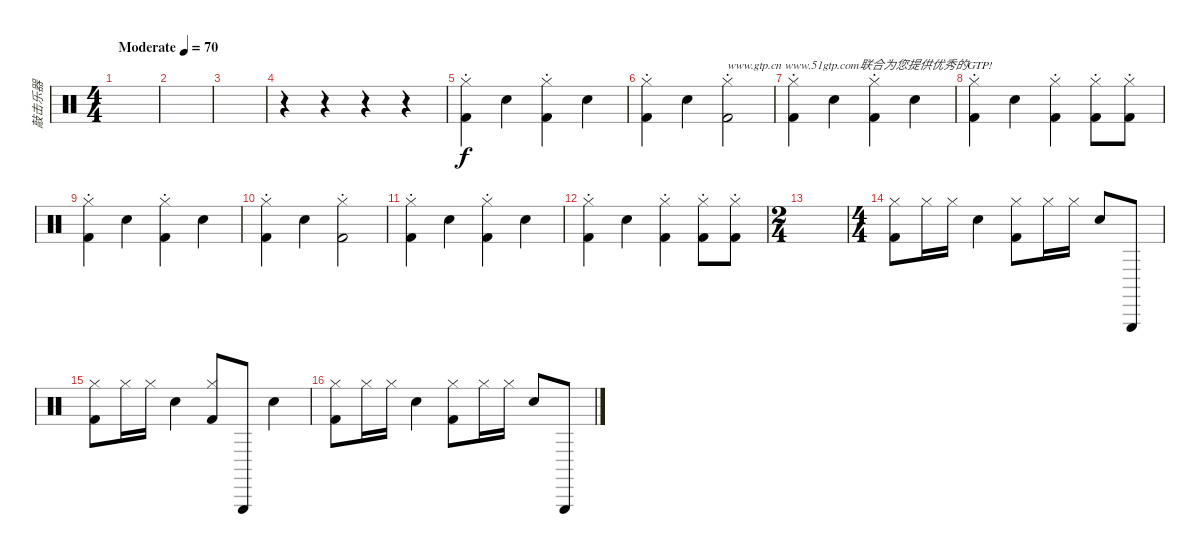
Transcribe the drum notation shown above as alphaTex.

\track ("敲击乐器" "敲击乐器") {instrument percussion}
\staff {score}
\articulation defaults
\ts (4 4)
\tempo (70 "Moderate")
\clef neutral
\ks c
|
|
|
r.4 r.4 r.4 r.4 |
("Hi-Hat (closed)" "Kick (hit) 2"{st}).4 "Electric Snare (hit)".4 ("Hi-Hat (closed)" "Kick (hit) 2"{st}).4 "Electric Snare (hit)".4 |
("Hi-Hat (closed)" "Kick (hit) 2"{st}).4 "Electric Snare (hit)".4 ("Hi-Hat (closed)" "Kick (hit) 2"{st}).2{txt "www.gtp.cn www.51gtp.com联合为您提供优秀的GTP!"} |
("Hi-Hat (closed)" "Kick (hit) 2"{st}).4 "Electric Snare (hit)".4 ("Hi-Hat (closed)" "Kick (hit) 2"{st}).4 "Electric Snare (hit)".4 |
("Hi-Hat (closed)" "Kick (hit) 2"{st}).4 "Electric Snare (hit)".4 ("Hi-Hat (closed)" "Kick (hit) 2"{st}).4 ("Hi-Hat (closed)" "Kick (hit) 2"{st}).8 ("Hi-Hat (closed)" "Kick (hit) 2"{st}).8 |
("Hi-Hat (closed)" "Kick (hit) 2"{st}).4 "Electric Snare (hit)".4 ("Hi-Hat (closed)" "Kick (hit) 2"{st}).4 "Electric Snare (hit)".4 |
("Hi-Hat (closed)" "Kick (hit) 2"{st}).4 "Electric Snare (hit)".4 ("Hi-Hat (closed)" "Kick (hit) 2"{st}).2 |
("Hi-Hat (closed)" "Kick (hit) 2"{st}).4 "Electric Snare (hit)".4 ("Hi-Hat (closed)" "Kick (hit) 2"{st}).4 "Electric Snare (hit)".4 |
("Hi-Hat (closed)" "Kick (hit) 2"{st}).4 "Electric Snare (hit)".4 ("Hi-Hat (closed)" "Kick (hit) 2"{st}).4 ("Hi-Hat (closed)" "Kick (hit) 2"{st}).8 ("Hi-Hat (closed)" "Kick (hit) 2"{st}).8 |
\ts (2 4)
|
\ts (4 4)
("Hi-Hat (closed)" "Kick (hit) 2").8 "Hi-Hat (closed)".16 "Hi-Hat (closed)".16 "Electric Snare (hit)".4 ("Hi-Hat (closed)" "Kick (hit) 2").8 "Hi-Hat (closed)".16 "Hi-Hat (closed)".16 "Electric Snare (hit)".8 "Triangle (hit)".8 |
("Hi-Hat (closed)" "Kick (hit) 2").8 "Hi-Hat (closed)".16 "Hi-Hat (closed)".16 "Electric Snare (hit)".4 ("Hi-Hat (closed)" "Kick (hit) 2").8 "Triangle (hit)".8 "Electric Snare (hit)".4 |
("Hi-Hat (closed)" "Kick (hit) 2").8 "Hi-Hat (closed)".16 "Hi-Hat (closed)".16 "Electric Snare (hit)".4 ("Hi-Hat (closed)" "Kick (hit) 2").8 "Hi-Hat (closed)".16 "Hi-Hat (closed)".16 "Electric Snare (hit)".8 "Triangle (hit)".8
